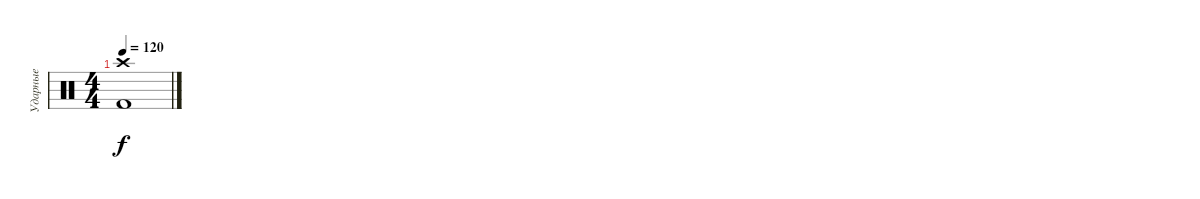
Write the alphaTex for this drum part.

\track ("Ударные" "Ударные") {instrument percussion}
\staff {score}
\articulation defaults
\ts (4 4)
\tempo 120
\clef neutral
\ks c
("Crash high (hit)" "Kick (hit) 2").1{dy f}
